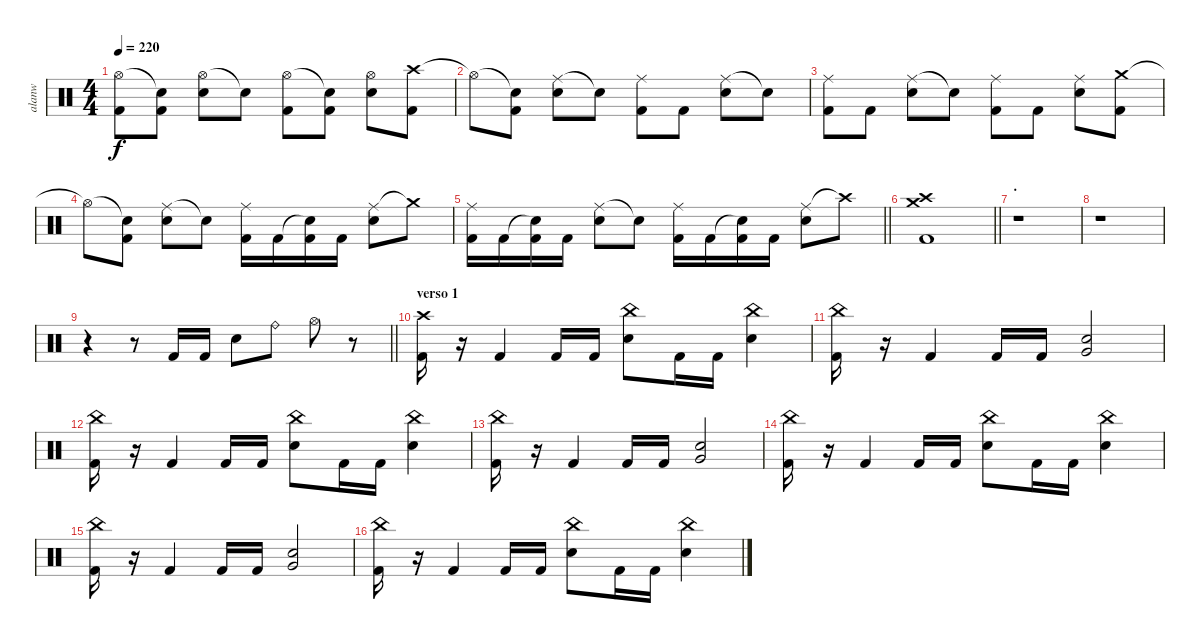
\track ("alanw" "alanw") {instrument percussion}
\staff {score}
\articulation defaults
\ts (4 4)
\tempo 220
\clef neutral
\ks c
("Hi-Hat (open)" "Kick (hit) 2").8{dy f} ("Snare (hit)"{t} "Kick (hit) 2").8 ("Hi-Hat (open)" "Electric Snare (hit)").8 "Snare (hit)"{t}.8 ("Hi-Hat (open)" "Kick (hit) 2").8 ("Snare (hit)"{t} "Kick (hit) 2").8 ("Hi-Hat (open)" "Electric Snare (hit)").8 ("Crash high (hit)" "Kick (hit) 2").8 |
"Hi-Hat (open)"{t}.8 ("Snare (hit)"{t} "Kick (hit) 2").8 ("Ride (middle)" "Electric Snare (hit)").8 "Snare (hit)"{t}.8 ("Ride (middle)" "Kick (hit) 2").8 "Kick (hit) 2".8 ("Ride (middle)" "Electric Snare (hit)").8 "Snare (hit)"{t}.8 |
("Ride (middle)" "Kick (hit) 2").8 "Kick (hit) 2".8 ("Ride (middle)" "Electric Snare (hit)").8 "Snare (hit)"{t}.8 ("Ride (middle)" "Kick (hit) 2").8 "Kick (hit) 2".8 ("Ride (middle)" "Electric Snare (hit)").8 ("Crash medium (hit)" "Kick (hit) 2").8 |
"Hi-Hat (open)"{t}.8 ("Snare (hit)"{t} "Kick (hit) 2").8 ("Ride (middle)" "Electric Snare (hit)").8 "Snare (hit)"{t}.8 ("Ride (middle)" "Kick (hit) 2").16 "Kick (hit) 2".16 ("Snare (hit)"{t} "Kick (hit) 2").16 "Kick (hit) 2".16 ("Ride (middle)" "Electric Snare (hit)").8 "Crash medium (hit)"{t}.8 |
\barLineRight lightlight
("Ride (middle)" "Kick (hit) 2").16 "Kick (hit) 2".16 ("Snare (hit)"{t} "Kick (hit) 2").16 "Kick (hit) 2".16 ("Ride (middle)" "Electric Snare (hit)").8 "Snare (hit)"{t}.8 ("Ride (middle)" "Kick (hit) 2").16 "Kick (hit) 2".16 ("Snare (hit)"{t} "Kick (hit) 2").16 "Kick (hit) 2".16 ("Ride (middle)" "Electric Snare (hit)").8 "Crash high (hit)"{t}.8 |
\barLineRight lightlight
("Crash high (hit)" "Crash medium (hit)" "Kick (hit) 2").1 |
\section ("" ".")
r.1 |
r.1 |
\barLineRight lightlight
r.4 r.8 "Kick (hit) 2".16 "Kick (hit) 2".16 "Electric Snare (hit)".8 "Ride (bell)".8 "Hi-Hat (open)".8 r.8 |
\section ("" "verso 1 ")
("Crash high (hit)" "Kick (hit) 2").16 r.16 "Kick (hit) 2".4 "Kick (hit) 2".16 "Kick (hit) 2".16 ("China (hit)" "Electric Snare (hit)").8 "Kick (hit) 2".16 "Kick (hit) 2".16 ("China (hit)" "Electric Snare (hit)").4 |
("China (hit)" "Kick (hit) 2").16 r.16 "Kick (hit) 2".4 "Kick (hit) 2".16 "Kick (hit) 2".16 ("Very Low Tom (hit)" "Electric Snare (hit)").2 |
("China (hit)" "Kick (hit) 2").16 r.16 "Kick (hit) 2".4 "Kick (hit) 2".16 "Kick (hit) 2".16 ("China (hit)" "Electric Snare (hit)").8 "Kick (hit) 2".16 "Kick (hit) 2".16 ("China (hit)" "Electric Snare (hit)").4 |
("China (hit)" "Kick (hit) 2").16 r.16 "Kick (hit) 2".4 "Kick (hit) 2".16 "Kick (hit) 2".16 ("Very Low Tom (hit)" "Electric Snare (hit)").2 |
("China (hit)" "Kick (hit) 2").16 r.16 "Kick (hit) 2".4 "Kick (hit) 2".16 "Kick (hit) 2".16 ("China (hit)" "Electric Snare (hit)").8 "Kick (hit) 2".16 "Kick (hit) 2".16 ("China (hit)" "Electric Snare (hit)").4 |
("China (hit)" "Kick (hit) 2").16 r.16 "Kick (hit) 2".4 "Kick (hit) 2".16 "Kick (hit) 2".16 ("Very Low Tom (hit)" "Electric Snare (hit)").2 |
("China (hit)" "Kick (hit) 2").16 r.16 "Kick (hit) 2".4 "Kick (hit) 2".16 "Kick (hit) 2".16 ("China (hit)" "Electric Snare (hit)").8 "Kick (hit) 2".16 "Kick (hit) 2".16 ("China (hit)" "Electric Snare (hit)").4
